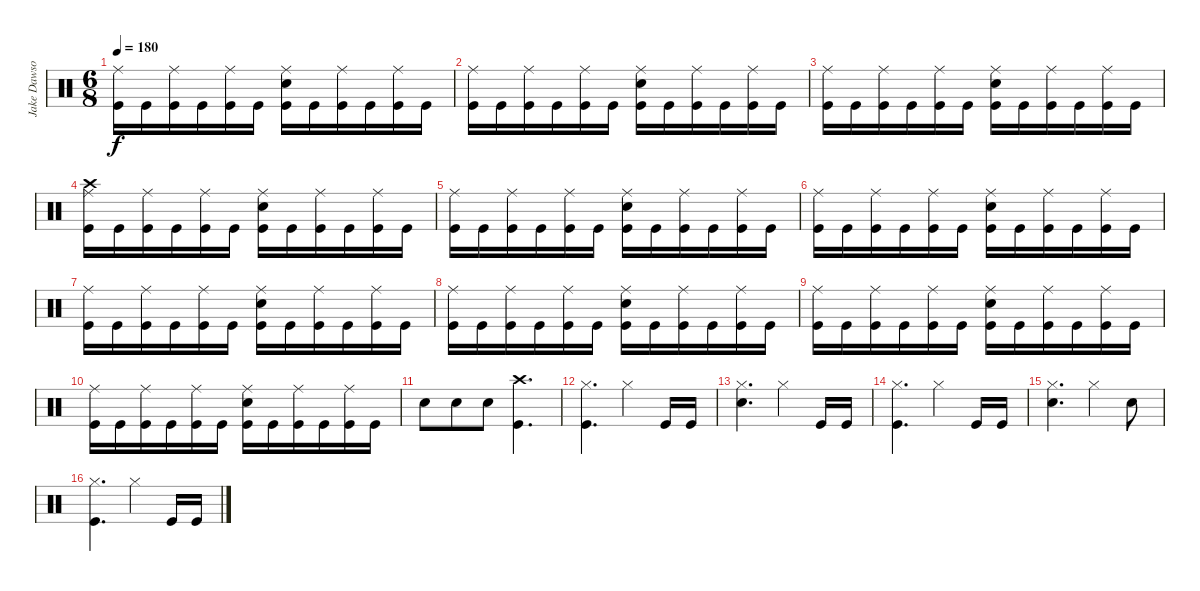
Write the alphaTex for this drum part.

\track ("Jake Dawson" "Jake Dawso") {instrument percussion}
\staff {score}
\articulation defaults
\ts (6 8)
\tempo 180
\clef neutral
\ks c
("Ride (middle)" "Kick (hit)").16{dy f} "Kick (hit)".16 ("Ride (middle)" "Kick (hit)").16 "Kick (hit)".16 ("Ride (middle)" "Kick (hit)").16 "Kick (hit)".16 ("Ride (middle)" "Snare (hit) 2" "Kick (hit)").16 "Kick (hit)".16 ("Ride (middle)" "Kick (hit)").16 "Kick (hit)".16 ("Ride (middle)" "Kick (hit)").16 "Kick (hit)".16 |
("Ride (middle)" "Kick (hit)").16 "Kick (hit)".16 ("Ride (middle)" "Kick (hit)").16 "Kick (hit)".16 ("Ride (middle)" "Kick (hit)").16 "Kick (hit)".16 ("Ride (middle)" "Snare (hit) 2" "Kick (hit)").16 "Kick (hit)".16 ("Ride (middle)" "Kick (hit)").16 "Kick (hit)".16 ("Ride (middle)" "Kick (hit)").16 "Kick (hit)".16 |
("Ride (middle)" "Kick (hit)").16 "Kick (hit)".16 ("Ride (middle)" "Kick (hit)").16 "Kick (hit)".16 ("Ride (middle)" "Kick (hit)").16 "Kick (hit)".16 ("Ride (middle)" "Snare (hit) 2" "Kick (hit)").16 "Kick (hit)".16 ("Ride (middle)" "Kick (hit)").16 "Kick (hit)".16 ("Ride (middle)" "Kick (hit)").16 "Kick (hit)".16 |
("Crash high (hit)" "Ride (middle)" "Kick (hit)").16 "Kick (hit)".16 ("Ride (middle)" "Kick (hit)").16 "Kick (hit)".16 ("Ride (middle)" "Kick (hit)").16 "Kick (hit)".16 ("Ride (middle)" "Snare (hit) 2" "Kick (hit)").16 "Kick (hit)".16 ("Ride (middle)" "Kick (hit)").16 "Kick (hit)".16 ("Ride (middle)" "Kick (hit)").16 "Kick (hit)".16 |
("Ride (middle)" "Kick (hit)").16 "Kick (hit)".16 ("Ride (middle)" "Kick (hit)").16 "Kick (hit)".16 ("Ride (middle)" "Kick (hit)").16 "Kick (hit)".16 ("Ride (middle)" "Snare (hit) 2" "Kick (hit)").16 "Kick (hit)".16 ("Ride (middle)" "Kick (hit)").16 "Kick (hit)".16 ("Ride (middle)" "Kick (hit)").16 "Kick (hit)".16 |
("Ride (middle)" "Kick (hit)").16 "Kick (hit)".16 ("Ride (middle)" "Kick (hit)").16 "Kick (hit)".16 ("Ride (middle)" "Kick (hit)").16 "Kick (hit)".16 ("Ride (middle)" "Snare (hit) 2" "Kick (hit)").16 "Kick (hit)".16 ("Ride (middle)" "Kick (hit)").16 "Kick (hit)".16 ("Ride (middle)" "Kick (hit)").16 "Kick (hit)".16 |
("Ride (middle)" "Kick (hit)").16 "Kick (hit)".16 ("Ride (middle)" "Kick (hit)").16 "Kick (hit)".16 ("Ride (middle)" "Kick (hit)").16 "Kick (hit)".16 ("Ride (middle)" "Snare (hit) 2" "Kick (hit)").16 "Kick (hit)".16 ("Ride (middle)" "Kick (hit)").16 "Kick (hit)".16 ("Ride (middle)" "Kick (hit)").16 "Kick (hit)".16 |
("Ride (middle)" "Kick (hit)").16 "Kick (hit)".16 ("Ride (middle)" "Kick (hit)").16 "Kick (hit)".16 ("Ride (middle)" "Kick (hit)").16 "Kick (hit)".16 ("Ride (middle)" "Snare (hit) 2" "Kick (hit)").16 "Kick (hit)".16 ("Ride (middle)" "Kick (hit)").16 "Kick (hit)".16 ("Ride (middle)" "Kick (hit)").16 "Kick (hit)".16 |
("Ride (middle)" "Kick (hit)").16 "Kick (hit)".16 ("Ride (middle)" "Kick (hit)").16 "Kick (hit)".16 ("Ride (middle)" "Kick (hit)").16 "Kick (hit)".16 ("Ride (middle)" "Snare (hit) 2" "Kick (hit)").16 "Kick (hit)".16 ("Ride (middle)" "Kick (hit)").16 "Kick (hit)".16 ("Ride (middle)" "Kick (hit)").16 "Kick (hit)".16 |
("Ride (middle)" "Kick (hit)").16 "Kick (hit)".16 ("Ride (middle)" "Kick (hit)").16 "Kick (hit)".16 ("Ride (middle)" "Kick (hit)").16 "Kick (hit)".16 ("Ride (middle)" "Snare (hit) 2" "Kick (hit)").16 "Kick (hit)".16 ("Ride (middle)" "Kick (hit)").16 "Kick (hit)".16 ("Ride (middle)" "Kick (hit)").16 "Kick (hit)".16 |
"Snare (hit) 2".8 "Snare (hit) 2".8 "Snare (hit) 2".8 ("Crash high (hit)" "Kick (hit)").4{d} |
("Hi-Hat (closed)" "Kick (hit)").4{d} "Hi-Hat (closed)".4 "Kick (hit)".16 "Kick (hit)".16 |
("Hi-Hat (closed)" "Snare (hit) 2").4{d} "Hi-Hat (closed)".4 "Kick (hit)".16 "Kick (hit)".16 |
("Hi-Hat (closed)" "Kick (hit)").4{d} "Hi-Hat (closed)".4 "Kick (hit)".16 "Kick (hit)".16 |
("Hi-Hat (closed)" "Snare (hit) 2").4{d} "Hi-Hat (closed)".4 "Snare (hit) 2".8 |
("Hi-Hat (closed)" "Kick (hit)").4{d} "Hi-Hat (closed)".4 "Kick (hit)".16 "Kick (hit)".16
